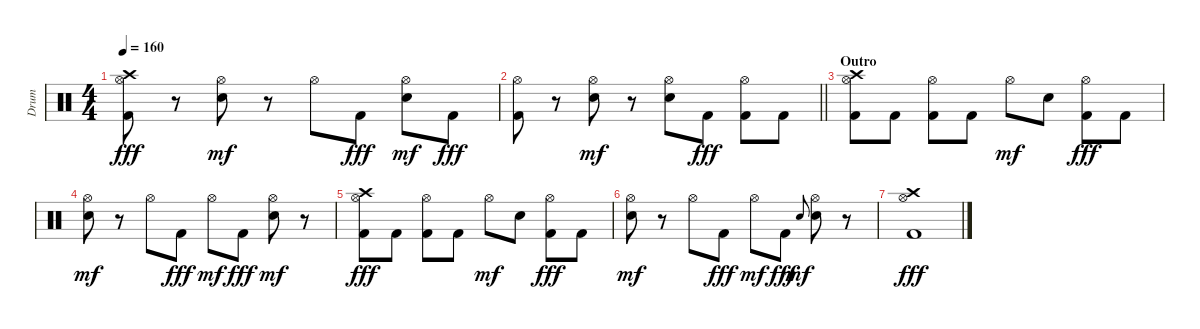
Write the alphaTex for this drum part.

\track ("Drum" "Drum") {instrument percussion}
\staff {score}
\articulation defaults
\ts (4 4)
\tempo 160
\clef neutral
\ks c
("Hi-Hat (open)" "Kick (hit) 2" "Crash high (hit)").8{dy fff} r.8 ("Hi-Hat (open)" "Electric Snare (hit)").8{dy mf} r.8 "Hi-Hat (open)".8 "Kick (hit) 2".8{dy fff} ("Hi-Hat (open)" "Electric Snare (hit)").8{dy mf} "Kick (hit) 2".8{dy fff} |
\barLineRight lightlight
("Hi-Hat (open)" "Kick (hit) 2").8 r.8 ("Hi-Hat (open)" "Electric Snare (hit)").8{dy mf} r.8 ("Hi-Hat (open)" "Electric Snare (hit)").8 "Kick (hit) 2".8{dy fff} ("Hi-Hat (open)" "Kick (hit) 2").8 "Kick (hit) 2".8 |
\section ("" "Outro")
("Hi-Hat (open)" "Kick (hit) 2" "Crash high (hit)").8 "Kick (hit) 2".8 ("Hi-Hat (open)" "Kick (hit) 2").8 "Kick (hit) 2".8 "Hi-Hat (open)".8{dy mf} "Electric Snare (hit)".8 ("Hi-Hat (open)" "Kick (hit) 2").8{dy fff} "Kick (hit) 2".8 |
("Hi-Hat (open)" "Electric Snare (hit)").8{dy mf} r.8 "Hi-Hat (open)".8 "Kick (hit) 2".8{dy fff} "Hi-Hat (open)".8{dy mf} "Kick (hit) 2".8{dy fff} ("Hi-Hat (open)" "Electric Snare (hit)").8{dy mf} r.8 |
("Hi-Hat (open)" "Kick (hit) 2" "Crash high (hit)").8{dy fff} "Kick (hit) 2".8 ("Hi-Hat (open)" "Kick (hit) 2").8 "Kick (hit) 2".8 "Hi-Hat (open)".8{dy mf} "Electric Snare (hit)".8 ("Hi-Hat (open)" "Kick (hit) 2").8{dy fff} "Kick (hit) 2".8 |
("Hi-Hat (open)" "Electric Snare (hit)").8{dy mf} r.8 "Hi-Hat (open)".8 "Kick (hit) 2".8{dy fff} "Hi-Hat (open)".8{dy mf} "Kick (hit) 2".8{dy fff} "Electric Snare (hit)".8{gr onbeat dy mf} ("Hi-Hat (open)" "Electric Snare (hit)").8 r.8 |
("Kick (hit) 2" "Crash high (hit)" "Hi-Hat (open)").1{dy fff}
